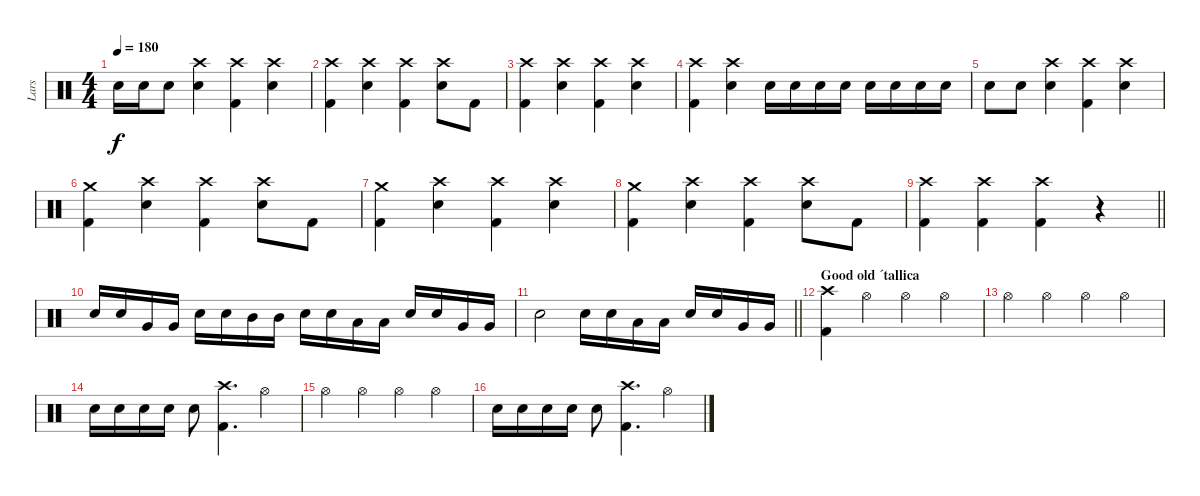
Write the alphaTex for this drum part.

\track ("Lars" "Lars") {instrument percussion}
\staff {score}
\articulation defaults
\ts (4 4)
\tempo 180
\clef neutral
\ks c "Electric Snare (hit)".16{dy f} "Electric Snare (hit)".16 "Electric Snare (hit)".8
("Crash high (hit)" "Electric Snare (hit)").4 ("Crash high (hit)" "Kick (hit) 2").4 ("Crash high (hit)" "Electric Snare (hit)").4 |
("Crash high (hit)" "Kick (hit) 2").4 ("Crash high (hit)" "Electric Snare (hit)").4 ("Crash high (hit)" "Kick (hit) 2").4 ("Crash high (hit)" "Electric Snare (hit)").8 "Kick (hit) 2".8 |
("Crash high (hit)" "Kick (hit) 2").4 ("Crash high (hit)" "Electric Snare (hit)").4 ("Crash high (hit)" "Kick (hit) 2").4 ("Crash high (hit)" "Electric Snare (hit)").4 |
("Crash high (hit)" "Kick (hit) 2").4 ("Crash high (hit)" "Electric Snare (hit)").4 "Electric Snare (hit)".16 "Electric Snare (hit)".16 "Electric Snare (hit)".16 "Electric Snare (hit)".16 "Electric Snare (hit)".16 "Electric Snare (hit)".16 "Electric Snare (hit)".16 "Electric Snare (hit)".16 |
"Electric Snare (hit)".8 "Electric Snare (hit)".8 ("Crash high (hit)" "Electric Snare (hit)").4 ("Crash high (hit)" "Kick (hit) 2").4 ("Crash high (hit)" "Electric Snare (hit)").4 |
("Crash medium (hit)" "Kick (hit) 2").4 ("Crash high (hit)" "Electric Snare (hit)").4 ("Crash high (hit)" "Kick (hit) 2").4 ("Crash high (hit)" "Electric Snare (hit)").8 "Kick (hit) 2".8 |
("Crash medium (hit)" "Kick (hit) 2").4 ("Crash high (hit)" "Electric Snare (hit)").4 ("Crash high (hit)" "Kick (hit) 2").4 ("Crash high (hit)" "Electric Snare (hit)").4 |
("Crash medium (hit)" "Kick (hit) 2").4 ("Crash high (hit)" "Electric Snare (hit)").4 ("Crash high (hit)" "Kick (hit) 2").4 ("Crash high (hit)" "Electric Snare (hit)").8 "Kick (hit) 2".8 |
\barLineRight lightlight
("Crash high (hit)" "Kick (hit) 2").4 ("Crash high (hit)" "Kick (hit) 2").4 ("Crash high (hit)" "Kick (hit) 2").4 r.4 |
\section ("" "")
"Electric Snare (hit)".16 "Electric Snare (hit)".16 "Very Low Tom (hit)".16 "Very Low Tom (hit)".16 "Electric Snare (hit)".16 "Electric Snare (hit)".16 "Mid Tom (hit)".16 "Mid Tom (hit)".16 "Electric Snare (hit)".16 "Electric Snare (hit)".16 "Low Tom (hit)".16 "Low Tom (hit)".16 "Electric Snare (hit)".16 "Electric Snare (hit)".16 "Very Low Tom (hit)".16 "Very Low Tom (hit)".16 |
\barLineRight lightlight "Electric Snare (hit)".2 "Electric Snare (hit)".16 "Electric Snare (hit)".16 "Low Tom (hit)".16 "Low Tom (hit)".16 "Electric Snare (hit)".16 "Electric Snare (hit)".16 "Very Low Tom (hit)".16 "Very Low Tom (hit)".16
|
\section ("" "Good old ´tallica")
("Crash high (hit)" "Kick (hit) 2").4 "Hi-Hat (open)".4 "Hi-Hat (open)".4 "Hi-Hat (open)".4 |
"Hi-Hat (open)".4 "Hi-Hat (open)".4 "Hi-Hat (open)".4 "Hi-Hat (open)".4 |
"Electric Snare (hit)".16 "Electric Snare (hit)".16 "Electric Snare (hit)".16 "Electric Snare (hit)".16 "Electric Snare (hit)".8 ("Crash high (hit)" "Kick (hit) 2").4{d} "Hi-Hat (open)".4 |
"Hi-Hat (open)".4 "Hi-Hat (open)".4 "Hi-Hat (open)".4 "Hi-Hat (open)".4 |
"Electric Snare (hit)".16 "Electric Snare (hit)".16 "Electric Snare (hit)".16 "Electric Snare (hit)".16 "Electric Snare (hit)".8 ("Crash high (hit)" "Kick (hit) 2").4{d} "Hi-Hat (open)".4
